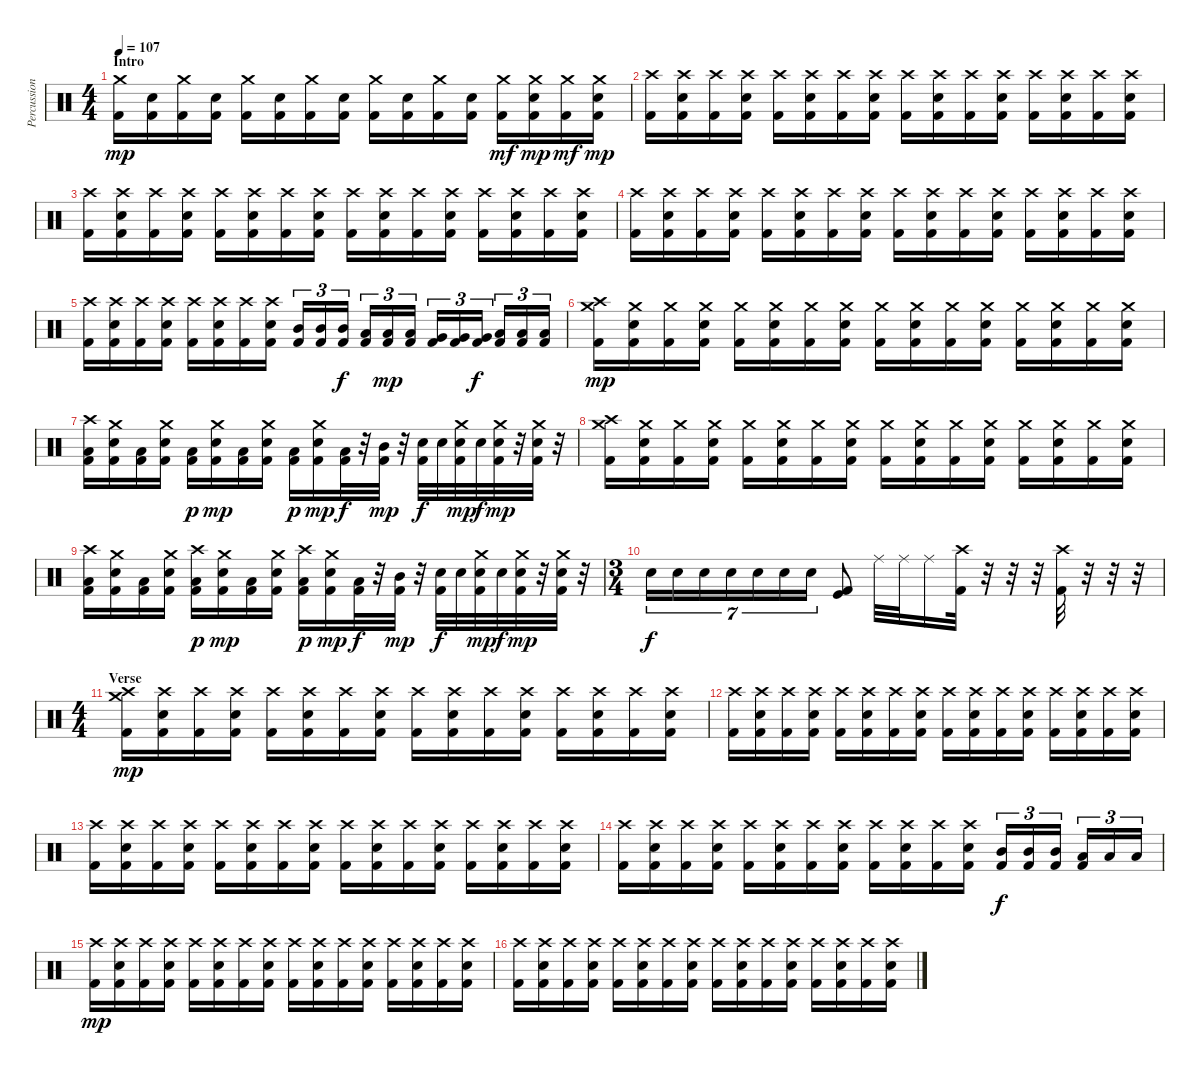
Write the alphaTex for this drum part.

\track ("Percussion" "Percussion") {instrument percussion}
\staff {score}
\articulation defaults
\ts (4 4)
\section ("" "Intro")
\tempo 107
\clef neutral
\ks c
("Crash medium (hit)" "Kick (hit) 2").16{dy mp} ("Electric Snare (hit)" "Kick (hit) 2").16 ("Crash medium (hit)" "Kick (hit) 2").16 ("Electric Snare (hit)" "Kick (hit) 2").16 ("Crash medium (hit)" "Kick (hit) 2").16 ("Electric Snare (hit)" "Kick (hit) 2").16 ("Crash medium (hit)" "Kick (hit) 2").16 ("Electric Snare (hit)" "Kick (hit) 2").16 ("Crash medium (hit)" "Kick (hit) 2").16 ("Electric Snare (hit)" "Kick (hit) 2").16 ("Crash medium (hit)" "Kick (hit) 2").16 ("Electric Snare (hit)" "Kick (hit) 2").16 ("Crash medium (hit)" "Kick (hit) 2").16{dy mf} ("Crash medium (hit)" "Electric Snare (hit)" "Kick (hit) 2").16{dy mp} ("Crash medium (hit)" "Kick (hit) 2").16{dy mf} ("Crash medium (hit)" "Electric Snare (hit)" "Kick (hit) 2").16{dy mp} |
("Crash high (hit)" "Kick (hit) 2").16 ("Crash high (hit)" "Electric Snare (hit)" "Kick (hit) 2").16 ("Crash high (hit)" "Kick (hit) 2").16 ("Crash high (hit)" "Electric Snare (hit)" "Kick (hit) 2").16 ("Crash high (hit)" "Kick (hit) 2").16 ("Crash high (hit)" "Electric Snare (hit)" "Kick (hit) 2").16 ("Crash high (hit)" "Kick (hit) 2").16 ("Crash high (hit)" "Electric Snare (hit)" "Kick (hit) 2").16 ("Crash high (hit)" "Kick (hit) 2").16 ("Crash high (hit)" "Electric Snare (hit)" "Kick (hit) 2").16 ("Crash high (hit)" "Kick (hit) 2").16 ("Crash high (hit)" "Electric Snare (hit)" "Kick (hit) 2").16 ("Crash high (hit)" "Kick (hit) 2").16 ("Crash high (hit)" "Electric Snare (hit)" "Kick (hit) 2").16 ("Crash high (hit)" "Kick (hit) 2").16 ("Crash high (hit)" "Electric Snare (hit)" "Kick (hit) 2").16 |
("Crash high (hit)" "Kick (hit) 2").16 ("Crash high (hit)" "Electric Snare (hit)" "Kick (hit) 2").16 ("Crash high (hit)" "Kick (hit) 2").16 ("Crash high (hit)" "Electric Snare (hit)" "Kick (hit) 2").16 ("Crash high (hit)" "Kick (hit) 2").16 ("Crash high (hit)" "Electric Snare (hit)" "Kick (hit) 2").16 ("Crash high (hit)" "Kick (hit) 2").16 ("Crash high (hit)" "Electric Snare (hit)" "Kick (hit) 2").16 ("Crash high (hit)" "Kick (hit) 2").16 ("Crash high (hit)" "Electric Snare (hit)" "Kick (hit) 2").16 ("Crash high (hit)" "Kick (hit) 2").16 ("Crash high (hit)" "Electric Snare (hit)" "Kick (hit) 2").16 ("Crash high (hit)" "Kick (hit) 2").16 ("Crash high (hit)" "Electric Snare (hit)" "Kick (hit) 2").16 ("Crash high (hit)" "Kick (hit) 2").16 ("Crash high (hit)" "Electric Snare (hit)" "Kick (hit) 2").16 |
("Crash high (hit)" "Kick (hit) 2").16 ("Crash high (hit)" "Electric Snare (hit)" "Kick (hit) 2").16 ("Crash high (hit)" "Kick (hit) 2").16 ("Crash high (hit)" "Electric Snare (hit)" "Kick (hit) 2").16 ("Crash high (hit)" "Kick (hit) 2").16 ("Crash high (hit)" "Electric Snare (hit)" "Kick (hit) 2").16 ("Crash high (hit)" "Kick (hit) 2").16 ("Crash high (hit)" "Electric Snare (hit)" "Kick (hit) 2").16 ("Crash high (hit)" "Kick (hit) 2").16 ("Crash high (hit)" "Electric Snare (hit)" "Kick (hit) 2").16 ("Crash high (hit)" "Kick (hit) 2").16 ("Crash high (hit)" "Electric Snare (hit)" "Kick (hit) 2").16 ("Crash high (hit)" "Kick (hit) 2").16 ("Crash high (hit)" "Electric Snare (hit)" "Kick (hit) 2").16 ("Crash high (hit)" "Kick (hit) 2").16 ("Crash high (hit)" "Electric Snare (hit)" "Kick (hit) 2").16 |
("Crash high (hit)" "Kick (hit) 2").16 ("Crash high (hit)" "Electric Snare (hit)" "Kick (hit) 2").16 ("Crash high (hit)" "Kick (hit) 2").16 ("Crash high (hit)" "Electric Snare (hit)" "Kick (hit) 2").16 ("Crash high (hit)" "Kick (hit) 2").16 ("Crash high (hit)" "Electric Snare (hit)" "Kick (hit) 2").16 ("Crash high (hit)" "Kick (hit) 2").16 ("Crash high (hit)" "Electric Snare (hit)" "Kick (hit) 2").16 ("Mid Tom (hit)" "Kick (hit) 2").16{tu (3 2)} ("Mid Tom (hit)" "Kick (hit) 2").16{tu (3 2)} ("Mid Tom (hit)" "Kick (hit) 2").16{tu (3 2) dy f} ("Low Tom (hit)" "Kick (hit) 2").16{tu (3 2)} ("Low Tom (hit)" "Kick (hit) 2").16{tu (3 2) dy mp} ("Low Tom (hit)" "Kick (hit) 2").16{tu (3 2)} ("Very Low Tom (hit)" "Kick (hit) 2").16{tu (3 2)} ("Very Low Tom (hit)" "Kick (hit) 2").16{tu (3 2)} ("Very Low Tom (hit)" "Kick (hit) 2").16{tu (3 2) dy f} ("Low Floor Tom (hit)" "Kick (hit) 2").16{tu (3 2)} ("Low Floor Tom (hit)" "Kick (hit) 2").16{tu (3 2)} ("Low Floor Tom (hit)" "Kick (hit) 2").16{tu (3 2)} |
("Crash medium (hit)" "Crash high (hit)" "Kick (hit) 2").16{dy mp} ("Crash medium (hit)" "Electric Snare (hit)" "Kick (hit) 2").16 ("Crash medium (hit)" "Kick (hit) 2").16 ("Crash medium (hit)" "Electric Snare (hit)" "Kick (hit) 2").16 ("Crash medium (hit)" "Kick (hit) 2").16 ("Crash medium (hit)" "Electric Snare (hit)" "Kick (hit) 2").16 ("Crash medium (hit)" "Kick (hit) 2").16 ("Crash medium (hit)" "Electric Snare (hit)" "Kick (hit) 2").16 ("Crash medium (hit)" "Kick (hit) 2").16 ("Crash medium (hit)" "Electric Snare (hit)" "Kick (hit) 2").16 ("Crash medium (hit)" "Kick (hit) 2").16 ("Crash medium (hit)" "Electric Snare (hit)" "Kick (hit) 2").16 ("Crash medium (hit)" "Kick (hit) 2").16 ("Crash medium (hit)" "Electric Snare (hit)" "Kick (hit) 2").16 ("Crash medium (hit)" "Kick (hit) 2").16 ("Crash medium (hit)" "Electric Snare (hit)" "Kick (hit) 2").16 |
("Low Floor Tom (hit)" "Crash high (hit)" "Kick (hit) 2").16 ("Crash medium (hit)" "Electric Snare (hit)" "Kick (hit) 2").16 ("Low Floor Tom (hit)" "Kick (hit) 2").16 ("Crash medium (hit)" "Electric Snare (hit)" "Kick (hit) 2").16 ("Low Floor Tom (hit)" "Kick (hit) 2").16{dy p} ("Crash medium (hit)" "Electric Snare (hit)" "Kick (hit) 2").16{dy mp} ("Low Floor Tom (hit)" "Kick (hit) 2").16 ("Crash medium (hit)" "Electric Snare (hit)" "Kick (hit) 2").16 ("Low Floor Tom (hit)" "Kick (hit) 2").16{dy p} ("Crash medium (hit)" "Electric Snare (hit)" "Kick (hit) 2").16{dy mp} ("Low Floor Tom (hit)" "Kick (hit) 2").32{dy f} r.32 ("Mid Tom (hit)" "Kick (hit) 2").32{dy mp} r.32 ("Electric Snare (hit)" "Kick (hit) 2").32{dy f} "Electric Snare (hit)".32 ("Crash medium (hit)" "Electric Snare (hit)" "Kick (hit) 2").32{dy mp} "Electric Snare (hit)".32{dy f} ("Crash medium (hit)" "Electric Snare (hit)" "Kick (hit) 2").32{dy mp} r.32 ("Crash medium (hit)" "Electric Snare (hit)" "Kick (hit) 2").32 r.32 |
("Crash medium (hit)" "Crash high (hit)" "Kick (hit) 2").16 ("Crash medium (hit)" "Electric Snare (hit)" "Kick (hit) 2").16 ("Crash medium (hit)" "Kick (hit) 2").16 ("Crash medium (hit)" "Electric Snare (hit)" "Kick (hit) 2").16 ("Crash medium (hit)" "Kick (hit) 2").16 ("Crash medium (hit)" "Electric Snare (hit)" "Kick (hit) 2").16 ("Crash medium (hit)" "Kick (hit) 2").16 ("Crash medium (hit)" "Electric Snare (hit)" "Kick (hit) 2").16 ("Crash medium (hit)" "Kick (hit) 2").16 ("Crash medium (hit)" "Electric Snare (hit)" "Kick (hit) 2").16 ("Crash medium (hit)" "Kick (hit) 2").16 ("Crash medium (hit)" "Electric Snare (hit)" "Kick (hit) 2").16 ("Crash medium (hit)" "Kick (hit) 2").16 ("Crash medium (hit)" "Electric Snare (hit)" "Kick (hit) 2").16 ("Crash medium (hit)" "Kick (hit) 2").16 ("Crash medium (hit)" "Electric Snare (hit)" "Kick (hit) 2").16 |
("Low Floor Tom (hit)" "Crash high (hit)" "Kick (hit) 2").16 ("Crash medium (hit)" "Electric Snare (hit)" "Kick (hit) 2").16 ("Low Floor Tom (hit)" "Kick (hit) 2").16 ("Crash medium (hit)" "Electric Snare (hit)" "Kick (hit) 2").16 ("Low Floor Tom (hit)" "Crash high (hit)" "Kick (hit) 2").16{dy p} ("Crash medium (hit)" "Electric Snare (hit)" "Kick (hit) 2").16{dy mp} ("Low Floor Tom (hit)" "Kick (hit) 2").16 ("Crash medium (hit)" "Electric Snare (hit)" "Kick (hit) 2").16 ("Low Floor Tom (hit)" "Crash high (hit)" "Kick (hit) 2").16{dy p} ("Crash medium (hit)" "Electric Snare (hit)" "Kick (hit) 2").16{dy mp} ("Low Floor Tom (hit)" "Kick (hit) 2").32{dy f} r.32 ("Mid Tom (hit)" "Kick (hit) 2").32{dy mp} r.32 ("Electric Snare (hit)" "Kick (hit) 2").32{dy f} "Electric Snare (hit)".32 ("Crash medium (hit)" "Electric Snare (hit)" "Kick (hit) 2").32{dy mp} "Electric Snare (hit)".32{dy f} ("Crash medium (hit)" "Electric Snare (hit)" "Kick (hit) 2").32{dy mp} r.32 ("Crash medium (hit)" "Electric Snare (hit)" "Kick (hit) 2").32 r.32 |
\ts (3 4)
"Electric Snare (hit)".16{tu (7 4) dy f} "Electric Snare (hit)".16{tu (7 4)} "Electric Snare (hit)".16{tu (7 4)} "Electric Snare (hit)".16{tu (7 4)} "Electric Snare (hit)".16{tu (7 4)} "Electric Snare (hit)".16{tu (7 4)} "Electric Snare (hit)".16{tu (7 4)} ("Kick (hit) 2" "Kick (hit)").8 "Ride (middle)".32 "Ride (middle)".32 "Ride (middle)".16 ("Kick (hit) 2" "Crash high (hit)").32 r.32 r.32 r.32 ("Kick (hit) 2" "Crash high (hit)").32 r.32 r.32 r.32 |
\ts (4 4)
\section ("" "Verse")
("Crash high (hit)" "Crash medium (hit)" "Kick (hit) 2").16{dy mp} ("Crash high (hit)" "Electric Snare (hit)" "Kick (hit) 2").16 ("Crash high (hit)" "Kick (hit) 2").16 ("Crash high (hit)" "Electric Snare (hit)" "Kick (hit) 2").16 ("Crash high (hit)" "Kick (hit) 2").16 ("Crash high (hit)" "Electric Snare (hit)" "Kick (hit) 2").16 ("Crash high (hit)" "Kick (hit) 2").16 ("Crash high (hit)" "Electric Snare (hit)" "Kick (hit) 2").16 ("Crash high (hit)" "Kick (hit) 2").16 ("Crash high (hit)" "Electric Snare (hit)" "Kick (hit) 2").16 ("Crash high (hit)" "Kick (hit) 2").16 ("Crash high (hit)" "Electric Snare (hit)" "Kick (hit) 2").16 ("Crash high (hit)" "Kick (hit) 2").16 ("Crash high (hit)" "Electric Snare (hit)" "Kick (hit) 2").16 ("Crash high (hit)" "Kick (hit) 2").16 ("Crash high (hit)" "Electric Snare (hit)" "Kick (hit) 2").16 |
("Crash high (hit)" "Kick (hit) 2").16 ("Crash high (hit)" "Electric Snare (hit)" "Kick (hit) 2").16 ("Crash high (hit)" "Kick (hit) 2").16 ("Crash high (hit)" "Electric Snare (hit)" "Kick (hit) 2").16 ("Crash high (hit)" "Kick (hit) 2").16 ("Crash high (hit)" "Electric Snare (hit)" "Kick (hit) 2").16 ("Crash high (hit)" "Kick (hit) 2").16 ("Crash high (hit)" "Electric Snare (hit)" "Kick (hit) 2").16 ("Crash high (hit)" "Kick (hit) 2").16 ("Crash high (hit)" "Electric Snare (hit)" "Kick (hit) 2").16 ("Crash high (hit)" "Kick (hit) 2").16 ("Crash high (hit)" "Electric Snare (hit)" "Kick (hit) 2").16 ("Crash high (hit)" "Kick (hit) 2").16 ("Crash high (hit)" "Electric Snare (hit)" "Kick (hit) 2").16 ("Crash high (hit)" "Kick (hit) 2").16 ("Crash high (hit)" "Electric Snare (hit)" "Kick (hit) 2").16 |
("Crash high (hit)" "Kick (hit) 2").16 ("Crash high (hit)" "Electric Snare (hit)" "Kick (hit) 2").16 ("Crash high (hit)" "Kick (hit) 2").16 ("Crash high (hit)" "Electric Snare (hit)" "Kick (hit) 2").16 ("Crash high (hit)" "Kick (hit) 2").16 ("Crash high (hit)" "Electric Snare (hit)" "Kick (hit) 2").16 ("Crash high (hit)" "Kick (hit) 2").16 ("Crash high (hit)" "Electric Snare (hit)" "Kick (hit) 2").16 ("Crash high (hit)" "Kick (hit) 2").16 ("Crash high (hit)" "Electric Snare (hit)" "Kick (hit) 2").16 ("Crash high (hit)" "Kick (hit) 2").16 ("Crash high (hit)" "Electric Snare (hit)" "Kick (hit) 2").16 ("Crash high (hit)" "Kick (hit) 2").16 ("Crash high (hit)" "Electric Snare (hit)" "Kick (hit) 2").16 ("Crash high (hit)" "Kick (hit) 2").16 ("Crash high (hit)" "Electric Snare (hit)" "Kick (hit) 2").16 |
("Crash high (hit)" "Kick (hit) 2").16 ("Crash high (hit)" "Electric Snare (hit)" "Kick (hit) 2").16 ("Crash high (hit)" "Kick (hit) 2").16 ("Crash high (hit)" "Electric Snare (hit)" "Kick (hit) 2").16 ("Crash high (hit)" "Kick (hit) 2").16 ("Crash high (hit)" "Electric Snare (hit)" "Kick (hit) 2").16 ("Crash high (hit)" "Kick (hit) 2").16 ("Crash high (hit)" "Electric Snare (hit)" "Kick (hit) 2").16 ("Crash high (hit)" "Kick (hit) 2").16 ("Crash high (hit)" "Electric Snare (hit)" "Kick (hit) 2").16 ("Crash high (hit)" "Kick (hit) 2").16 ("Crash high (hit)" "Electric Snare (hit)" "Kick (hit) 2").16 ("Mid Tom (hit)" "Kick (hit) 2").16{tu (3 2) dy f} ("Mid Tom (hit)" "Kick (hit) 2").16{tu (3 2)} ("Mid Tom (hit)" "Kick (hit) 2").16{tu (3 2)} ("Low Tom (hit)" "Kick (hit) 2").16{tu (3 2)} "Low Tom (hit)".16{tu (3 2)} "Low Tom (hit)".16{tu (3 2)} |
("Crash high (hit)" "Kick (hit) 2").16{dy mp} ("Crash high (hit)" "Electric Snare (hit)" "Kick (hit) 2").16 ("Crash high (hit)" "Kick (hit) 2").16 ("Crash high (hit)" "Electric Snare (hit)" "Kick (hit) 2").16 ("Crash high (hit)" "Kick (hit) 2").16 ("Crash high (hit)" "Electric Snare (hit)" "Kick (hit) 2").16 ("Crash high (hit)" "Kick (hit) 2").16 ("Crash high (hit)" "Electric Snare (hit)" "Kick (hit) 2").16 ("Crash high (hit)" "Kick (hit) 2").16 ("Crash high (hit)" "Electric Snare (hit)" "Kick (hit) 2").16 ("Crash high (hit)" "Kick (hit) 2").16 ("Crash high (hit)" "Electric Snare (hit)" "Kick (hit) 2").16 ("Crash high (hit)" "Kick (hit) 2").16 ("Crash high (hit)" "Electric Snare (hit)" "Kick (hit) 2").16 ("Crash high (hit)" "Kick (hit) 2").16 ("Crash high (hit)" "Electric Snare (hit)" "Kick (hit) 2").16 |
("Crash high (hit)" "Kick (hit) 2").16 ("Crash high (hit)" "Electric Snare (hit)" "Kick (hit) 2").16 ("Crash high (hit)" "Kick (hit) 2").16 ("Crash high (hit)" "Electric Snare (hit)" "Kick (hit) 2").16 ("Crash high (hit)" "Kick (hit) 2").16 ("Crash high (hit)" "Electric Snare (hit)" "Kick (hit) 2").16 ("Crash high (hit)" "Kick (hit) 2").16 ("Crash high (hit)" "Electric Snare (hit)" "Kick (hit) 2").16 ("Crash high (hit)" "Kick (hit) 2").16 ("Crash high (hit)" "Electric Snare (hit)" "Kick (hit) 2").16 ("Crash high (hit)" "Kick (hit) 2").16 ("Crash high (hit)" "Electric Snare (hit)" "Kick (hit) 2").16 ("Crash high (hit)" "Kick (hit) 2").16 ("Crash high (hit)" "Electric Snare (hit)" "Kick (hit) 2").16 ("Crash high (hit)" "Kick (hit) 2").16 ("Crash high (hit)" "Electric Snare (hit)" "Kick (hit) 2").16
